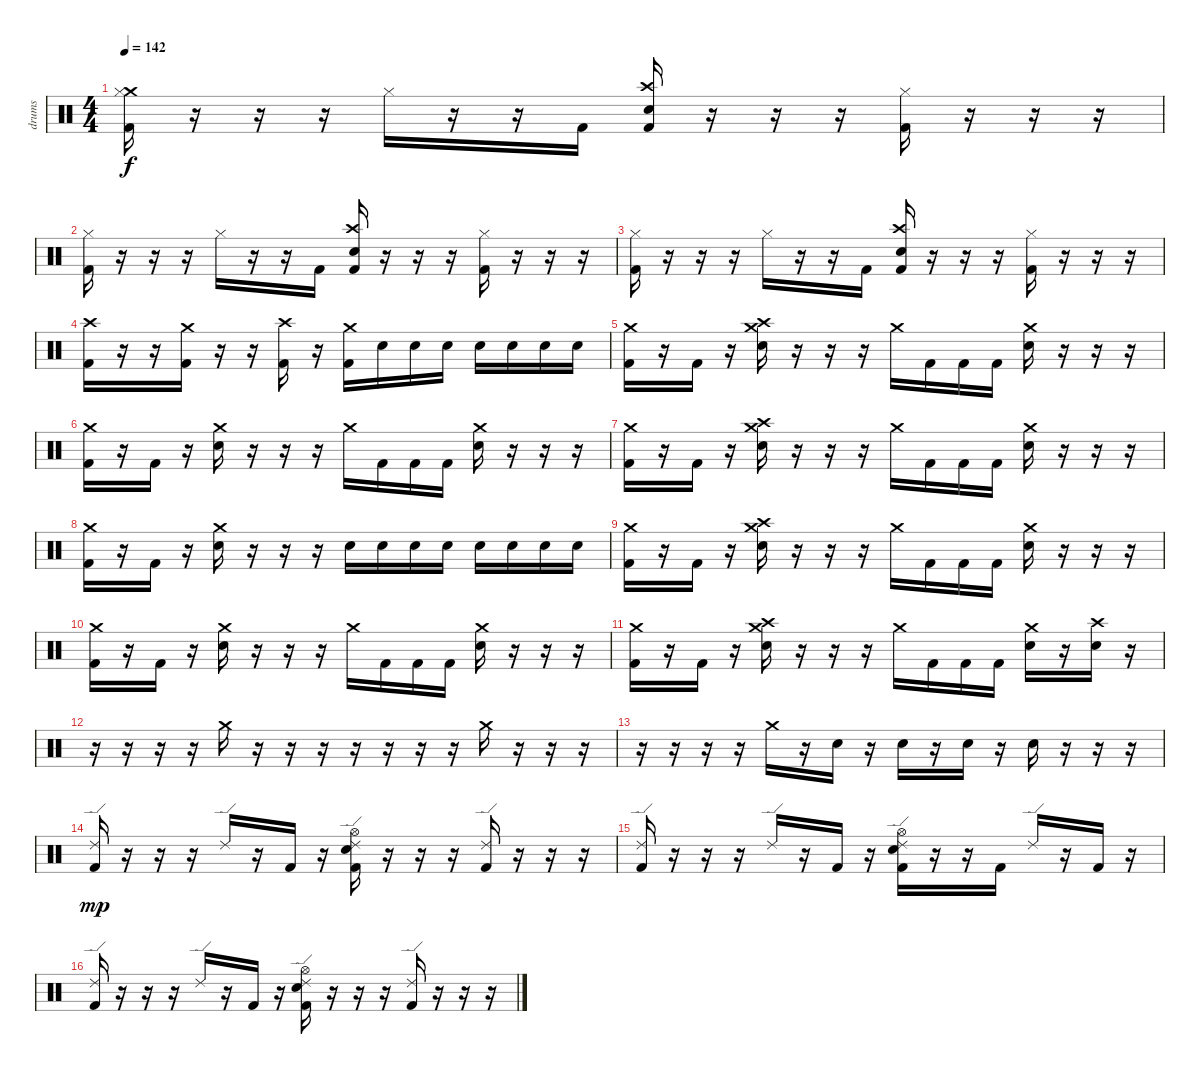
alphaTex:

\track ("drums" "drums") {instrument percussion}
\staff {score}
\articulation defaults
\ts (4 4)
\tempo 142
\clef neutral
\ks c
("Crash medium (hit)" "Hi-Hat (closed)" "Kick (hit) 2").16{dy f} r.16 r.16 r.16 "Hi-Hat (closed)".16 r.16 r.16 "Kick (hit) 2".16 ("Crash high (hit)" "Electric Snare (hit)" "Kick (hit) 2").16 r.16 r.16 r.16 ("Hi-Hat (closed)" "Kick (hit) 2").16 r.16 r.16 r.16 |
("Hi-Hat (closed)" "Kick (hit) 2").16 r.16 r.16 r.16 "Hi-Hat (closed)".16 r.16 r.16 "Kick (hit) 2".16 ("Crash high (hit)" "Electric Snare (hit)" "Kick (hit) 2").16 r.16 r.16 r.16 ("Hi-Hat (closed)" "Kick (hit) 2").16 r.16 r.16 r.16 |
("Hi-Hat (closed)" "Kick (hit) 2").16 r.16 r.16 r.16 "Hi-Hat (closed)".16 r.16 r.16 "Kick (hit) 2".16 ("Crash high (hit)" "Electric Snare (hit)" "Kick (hit) 2").16 r.16 r.16 r.16 ("Hi-Hat (closed)" "Kick (hit) 2").16 r.16 r.16 r.16 |
("Crash high (hit)" "Kick (hit) 2").16 r.16 r.16 ("Crash medium (hit)" "Kick (hit) 2").16 r.16 r.16 ("Crash high (hit)" "Kick (hit) 2").16 r.16 ("Crash medium (hit)" "Kick (hit) 2").16 "Electric Snare (hit)".16 "Electric Snare (hit)".16 "Electric Snare (hit)".16 "Electric Snare (hit)".16 "Electric Snare (hit)".16 "Electric Snare (hit)".16 "Electric Snare (hit)".16 |
("Crash medium (hit)" "Kick (hit) 2").16 r.16 "Kick (hit) 2".16 r.16 ("Crash high (hit)" "Crash medium (hit)" "Electric Snare (hit)").16 r.16 r.16 r.16 "Crash medium (hit)".16 "Kick (hit) 2".16 "Kick (hit) 2".16 "Kick (hit) 2".16 ("Crash medium (hit)" "Electric Snare (hit)").16 r.16 r.16 r.16 |
("Crash medium (hit)" "Kick (hit) 2").16 r.16 "Kick (hit) 2".16 r.16 ("Crash medium (hit)" "Electric Snare (hit)").16 r.16 r.16 r.16 "Crash medium (hit)".16 "Kick (hit) 2".16 "Kick (hit) 2".16 "Kick (hit) 2".16 ("Crash medium (hit)" "Electric Snare (hit)").16 r.16 r.16 r.16 |
("Crash medium (hit)" "Kick (hit) 2").16 r.16 "Kick (hit) 2".16 r.16 ("Crash high (hit)" "Crash medium (hit)" "Electric Snare (hit)").16 r.16 r.16 r.16 "Crash medium (hit)".16 "Kick (hit) 2".16 "Kick (hit) 2".16 "Kick (hit) 2".16 ("Crash medium (hit)" "Electric Snare (hit)").16 r.16 r.16 r.16 |
("Crash medium (hit)" "Kick (hit) 2").16 r.16 "Kick (hit) 2".16 r.16 ("Crash medium (hit)" "Electric Snare (hit)").16 r.16 r.16 r.16 "Electric Snare (hit)".16 "Electric Snare (hit)".16 "Electric Snare (hit)".16 "Electric Snare (hit)".16 "Electric Snare (hit)".16 "Electric Snare (hit)".16 "Electric Snare (hit)".16 "Electric Snare (hit)".16 |
("Crash medium (hit)" "Kick (hit) 2").16 r.16 "Kick (hit) 2".16 r.16 ("Crash high (hit)" "Crash medium (hit)" "Electric Snare (hit)").16 r.16 r.16 r.16 "Crash medium (hit)".16 "Kick (hit) 2".16 "Kick (hit) 2".16 "Kick (hit) 2".16 ("Crash medium (hit)" "Electric Snare (hit)").16 r.16 r.16 r.16 |
("Crash medium (hit)" "Kick (hit) 2").16 r.16 "Kick (hit) 2".16 r.16 ("Crash medium (hit)" "Electric Snare (hit)").16 r.16 r.16 r.16 "Crash medium (hit)".16 "Kick (hit) 2".16 "Kick (hit) 2".16 "Kick (hit) 2".16 ("Crash medium (hit)" "Electric Snare (hit)").16 r.16 r.16 r.16 |
("Crash medium (hit)" "Kick (hit) 2").16 r.16 "Kick (hit) 2".16 r.16 ("Crash high (hit)" "Crash medium (hit)" "Electric Snare (hit)").16 r.16 r.16 r.16 "Crash medium (hit)".16 "Kick (hit) 2".16 "Kick (hit) 2".16 "Kick (hit) 2".16 ("Crash medium (hit)" "Electric Snare (hit)").16 r.16 ("Crash high (hit)" "Electric Snare (hit)").16 r.16 |
r.16 r.16 r.16 r.16 "Crash medium (hit)".16 r.16 r.16 r.16 r.16 r.16 r.16 r.16 "Crash medium (hit)".16 r.16 r.16 r.16 |
r.16 r.16 r.16 r.16 "Crash medium (hit)".16 r.16 "Electric Snare (hit)".16 r.16 "Electric Snare (hit)".16 r.16 "Snare (hit) 2".16 r.16 "Snare (hit) 2".16 r.16 r.16 r.16 |
("Ride (edge) 2" "Kick (hit) 2").16{dy mp} r.16 r.16 r.16 "Ride (edge) 2".16 r.16 "Kick (hit) 2".16 r.16 ("Ride (edge) 2" "Hi-Hat (open)" "Electric Snare (hit)" "Kick (hit) 2").16 r.16 r.16 r.16 ("Ride (edge) 2" "Kick (hit) 2").16 r.16 r.16 r.16 |
("Ride (edge) 2" "Kick (hit) 2").16 r.16 r.16 r.16 "Ride (edge) 2".16 r.16 "Kick (hit) 2".16 r.16 ("Ride (edge) 2" "Hi-Hat (open)" "Electric Snare (hit)" "Kick (hit) 2").16 r.16 r.16 "Kick (hit) 2".16 "Ride (edge) 2".16 r.16 "Kick (hit) 2".16 r.16 |
("Ride (edge) 2" "Kick (hit) 2").16 r.16 r.16 r.16 "Ride (edge) 2".16 r.16 "Kick (hit) 2".16 r.16 ("Ride (edge) 2" "Hi-Hat (open)" "Electric Snare (hit)" "Kick (hit) 2").16 r.16 r.16 r.16 ("Ride (edge) 2" "Kick (hit) 2").16 r.16 r.16 r.16
